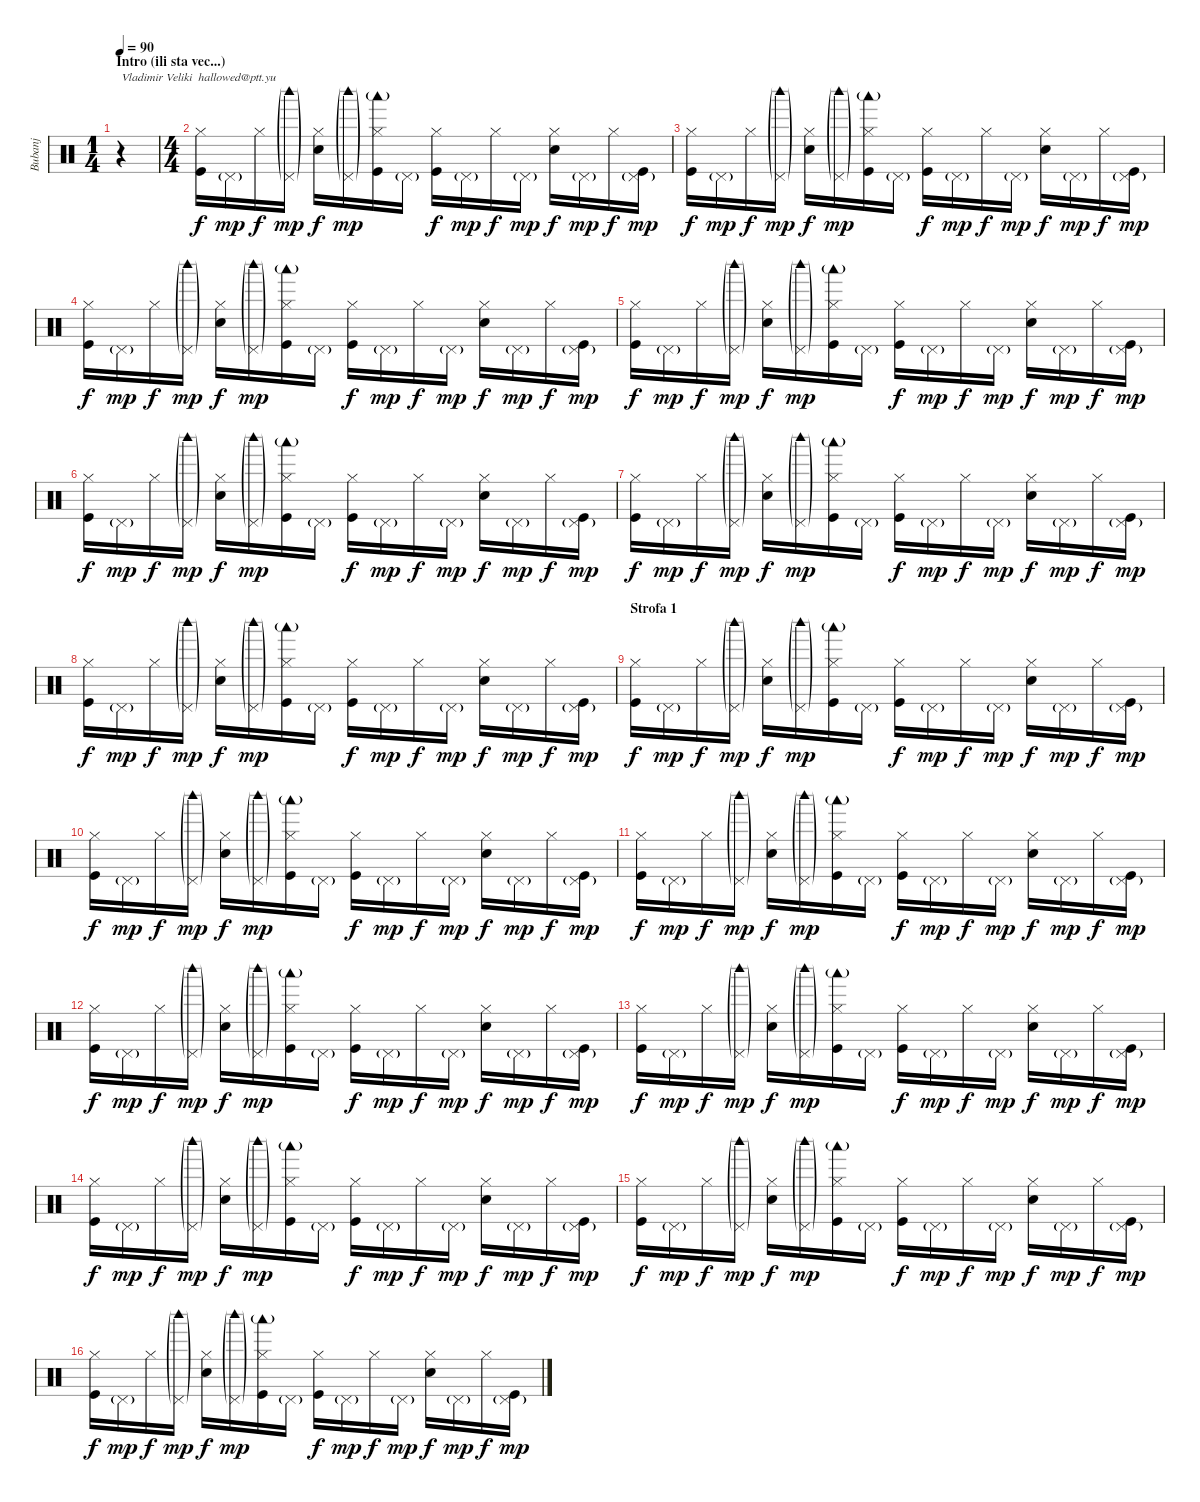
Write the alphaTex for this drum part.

\track ("Bubanj" "Bubanj") {instrument percussion}
\staff {score}
\articulation defaults
\ts (1 4)
\section ("" "Intro (ili sta vec...)")
\tempo 90
\clef neutral
\ks c
r.4{txt "Vladimir Veliki  hallowed@ptt.yu" dy f volume 4} |
\ts (4 4)
("Hi-Hat (closed)" "Kick (hit)").16{volume 11} "Pedal Hi-Hat (hit)"{g}.16{dy mp} "Hi-Hat (closed)".16{dy f} ("Pedal Hi-Hat (hit)"{g} "Woodblock high (hit)"{g}).16{dy mp} ("Hi-Hat (closed)" "Snare (hit) 2").16{dy f} ("Pedal Hi-Hat (hit)"{g} "Woodblock high (hit)"{g}).16{dy mp} ("Hi-Hat (closed)" "Woodblock low (hit)"{g} "Kick (hit)").16 "Pedal Hi-Hat (hit)"{g}.16 ("Hi-Hat (closed)" "Kick (hit)").16{dy f} "Pedal Hi-Hat (hit)"{g}.16{dy mp} "Hi-Hat (closed)".16{dy f} "Pedal Hi-Hat (hit)"{g}.16{dy mp} ("Hi-Hat (closed)" "Snare (hit) 2").16{dy f} "Pedal Hi-Hat (hit)"{g}.16{dy mp} "Hi-Hat (closed)".16{dy f} ("Pedal Hi-Hat (hit)"{g} "Kick (hit)").16{dy mp} |
("Hi-Hat (closed)" "Kick (hit)").16{dy f} "Pedal Hi-Hat (hit)"{g}.16{dy mp} "Hi-Hat (closed)".16{dy f} ("Pedal Hi-Hat (hit)"{g} "Woodblock high (hit)"{g}).16{dy mp} ("Hi-Hat (closed)" "Snare (hit) 2").16{dy f} ("Pedal Hi-Hat (hit)"{g} "Woodblock high (hit)"{g}).16{dy mp} ("Hi-Hat (closed)" "Woodblock low (hit)"{g} "Kick (hit)").16 "Pedal Hi-Hat (hit)"{g}.16 ("Hi-Hat (closed)" "Kick (hit)").16{dy f} "Pedal Hi-Hat (hit)"{g}.16{dy mp} "Hi-Hat (closed)".16{dy f} "Pedal Hi-Hat (hit)"{g}.16{dy mp} ("Hi-Hat (closed)" "Snare (hit) 2").16{dy f} "Pedal Hi-Hat (hit)"{g}.16{dy mp} "Hi-Hat (closed)".16{dy f} ("Pedal Hi-Hat (hit)"{g} "Kick (hit)").16{dy mp} |
("Hi-Hat (closed)" "Kick (hit)").16{dy f} "Pedal Hi-Hat (hit)"{g}.16{dy mp} "Hi-Hat (closed)".16{dy f} ("Pedal Hi-Hat (hit)"{g} "Woodblock high (hit)"{g}).16{dy mp} ("Hi-Hat (closed)" "Snare (hit) 2").16{dy f} ("Pedal Hi-Hat (hit)"{g} "Woodblock high (hit)"{g}).16{dy mp} ("Hi-Hat (closed)" "Woodblock low (hit)"{g} "Kick (hit)").16 "Pedal Hi-Hat (hit)"{g}.16 ("Hi-Hat (closed)" "Kick (hit)").16{dy f} "Pedal Hi-Hat (hit)"{g}.16{dy mp} "Hi-Hat (closed)".16{dy f} "Pedal Hi-Hat (hit)"{g}.16{dy mp} ("Hi-Hat (closed)" "Snare (hit) 2").16{dy f} "Pedal Hi-Hat (hit)"{g}.16{dy mp} "Hi-Hat (closed)".16{dy f} ("Pedal Hi-Hat (hit)"{g} "Kick (hit)").16{dy mp} |
("Hi-Hat (closed)" "Kick (hit)").16{dy f} "Pedal Hi-Hat (hit)"{g}.16{dy mp} "Hi-Hat (closed)".16{dy f} ("Pedal Hi-Hat (hit)"{g} "Woodblock high (hit)"{g}).16{dy mp} ("Hi-Hat (closed)" "Snare (hit) 2").16{dy f} ("Pedal Hi-Hat (hit)"{g} "Woodblock high (hit)"{g}).16{dy mp} ("Hi-Hat (closed)" "Woodblock low (hit)"{g} "Kick (hit)").16 "Pedal Hi-Hat (hit)"{g}.16 ("Hi-Hat (closed)" "Kick (hit)").16{dy f} "Pedal Hi-Hat (hit)"{g}.16{dy mp} "Hi-Hat (closed)".16{dy f} "Pedal Hi-Hat (hit)"{g}.16{dy mp} ("Hi-Hat (closed)" "Snare (hit) 2").16{dy f} "Pedal Hi-Hat (hit)"{g}.16{dy mp} "Hi-Hat (closed)".16{dy f} ("Pedal Hi-Hat (hit)"{g} "Kick (hit)").16{dy mp} |
("Hi-Hat (closed)" "Kick (hit)").16{dy f} "Pedal Hi-Hat (hit)"{g}.16{dy mp} "Hi-Hat (closed)".16{dy f} ("Pedal Hi-Hat (hit)"{g} "Woodblock high (hit)"{g}).16{dy mp} ("Hi-Hat (closed)" "Snare (hit) 2").16{dy f} ("Pedal Hi-Hat (hit)"{g} "Woodblock high (hit)"{g}).16{dy mp} ("Hi-Hat (closed)" "Woodblock low (hit)"{g} "Kick (hit)").16 "Pedal Hi-Hat (hit)"{g}.16 ("Hi-Hat (closed)" "Kick (hit)").16{dy f} "Pedal Hi-Hat (hit)"{g}.16{dy mp} "Hi-Hat (closed)".16{dy f} "Pedal Hi-Hat (hit)"{g}.16{dy mp} ("Hi-Hat (closed)" "Snare (hit) 2").16{dy f} "Pedal Hi-Hat (hit)"{g}.16{dy mp} "Hi-Hat (closed)".16{dy f} ("Pedal Hi-Hat (hit)"{g} "Kick (hit)").16{dy mp} |
("Hi-Hat (closed)" "Kick (hit)").16{dy f} "Pedal Hi-Hat (hit)"{g}.16{dy mp} "Hi-Hat (closed)".16{dy f} ("Pedal Hi-Hat (hit)"{g} "Woodblock high (hit)"{g}).16{dy mp} ("Hi-Hat (closed)" "Snare (hit) 2").16{dy f} ("Pedal Hi-Hat (hit)"{g} "Woodblock high (hit)"{g}).16{dy mp} ("Hi-Hat (closed)" "Woodblock low (hit)"{g} "Kick (hit)").16 "Pedal Hi-Hat (hit)"{g}.16 ("Hi-Hat (closed)" "Kick (hit)").16{dy f} "Pedal Hi-Hat (hit)"{g}.16{dy mp} "Hi-Hat (closed)".16{dy f} "Pedal Hi-Hat (hit)"{g}.16{dy mp} ("Hi-Hat (closed)" "Snare (hit) 2").16{dy f} "Pedal Hi-Hat (hit)"{g}.16{dy mp} "Hi-Hat (closed)".16{dy f} ("Pedal Hi-Hat (hit)"{g} "Kick (hit)").16{dy mp} |
("Hi-Hat (closed)" "Kick (hit)").16{dy f} "Pedal Hi-Hat (hit)"{g}.16{dy mp} "Hi-Hat (closed)".16{dy f} ("Pedal Hi-Hat (hit)"{g} "Woodblock high (hit)"{g}).16{dy mp} ("Hi-Hat (closed)" "Snare (hit) 2").16{dy f} ("Pedal Hi-Hat (hit)"{g} "Woodblock high (hit)"{g}).16{dy mp} ("Hi-Hat (closed)" "Woodblock low (hit)"{g} "Kick (hit)").16 "Pedal Hi-Hat (hit)"{g}.16 ("Hi-Hat (closed)" "Kick (hit)").16{dy f} "Pedal Hi-Hat (hit)"{g}.16{dy mp} "Hi-Hat (closed)".16{dy f} "Pedal Hi-Hat (hit)"{g}.16{dy mp} ("Hi-Hat (closed)" "Snare (hit) 2").16{dy f} "Pedal Hi-Hat (hit)"{g}.16{dy mp} "Hi-Hat (closed)".16{dy f} ("Pedal Hi-Hat (hit)"{g} "Kick (hit)").16{dy mp} |
\section ("" "Strofa 1")
("Hi-Hat (closed)" "Kick (hit)").16{dy f} "Pedal Hi-Hat (hit)"{g}.16{dy mp} "Hi-Hat (closed)".16{dy f} ("Pedal Hi-Hat (hit)"{g} "Woodblock high (hit)"{g}).16{dy mp} ("Hi-Hat (closed)" "Snare (hit) 2").16{dy f} ("Pedal Hi-Hat (hit)"{g} "Woodblock high (hit)"{g}).16{dy mp} ("Hi-Hat (closed)" "Woodblock low (hit)"{g} "Kick (hit)").16 "Pedal Hi-Hat (hit)"{g}.16 ("Hi-Hat (closed)" "Kick (hit)").16{dy f} "Pedal Hi-Hat (hit)"{g}.16{dy mp} "Hi-Hat (closed)".16{dy f} "Pedal Hi-Hat (hit)"{g}.16{dy mp} ("Hi-Hat (closed)" "Snare (hit) 2").16{dy f} "Pedal Hi-Hat (hit)"{g}.16{dy mp} "Hi-Hat (closed)".16{dy f} ("Pedal Hi-Hat (hit)"{g} "Kick (hit)").16{dy mp} |
("Hi-Hat (closed)" "Kick (hit)").16{dy f} "Pedal Hi-Hat (hit)"{g}.16{dy mp} "Hi-Hat (closed)".16{dy f} ("Pedal Hi-Hat (hit)"{g} "Woodblock high (hit)"{g}).16{dy mp} ("Hi-Hat (closed)" "Snare (hit) 2").16{dy f} ("Pedal Hi-Hat (hit)"{g} "Woodblock high (hit)"{g}).16{dy mp} ("Hi-Hat (closed)" "Woodblock low (hit)"{g} "Kick (hit)").16 "Pedal Hi-Hat (hit)"{g}.16 ("Hi-Hat (closed)" "Kick (hit)").16{dy f} "Pedal Hi-Hat (hit)"{g}.16{dy mp} "Hi-Hat (closed)".16{dy f} "Pedal Hi-Hat (hit)"{g}.16{dy mp} ("Hi-Hat (closed)" "Snare (hit) 2").16{dy f} "Pedal Hi-Hat (hit)"{g}.16{dy mp} "Hi-Hat (closed)".16{dy f} ("Pedal Hi-Hat (hit)"{g} "Kick (hit)").16{dy mp} |
("Hi-Hat (closed)" "Kick (hit)").16{dy f} "Pedal Hi-Hat (hit)"{g}.16{dy mp} "Hi-Hat (closed)".16{dy f} ("Pedal Hi-Hat (hit)"{g} "Woodblock high (hit)"{g}).16{dy mp} ("Hi-Hat (closed)" "Snare (hit) 2").16{dy f} ("Pedal Hi-Hat (hit)"{g} "Woodblock high (hit)"{g}).16{dy mp} ("Hi-Hat (closed)" "Woodblock low (hit)"{g} "Kick (hit)").16 "Pedal Hi-Hat (hit)"{g}.16 ("Hi-Hat (closed)" "Kick (hit)").16{dy f} "Pedal Hi-Hat (hit)"{g}.16{dy mp} "Hi-Hat (closed)".16{dy f} "Pedal Hi-Hat (hit)"{g}.16{dy mp} ("Hi-Hat (closed)" "Snare (hit) 2").16{dy f} "Pedal Hi-Hat (hit)"{g}.16{dy mp} "Hi-Hat (closed)".16{dy f} ("Pedal Hi-Hat (hit)"{g} "Kick (hit)").16{dy mp} |
("Hi-Hat (closed)" "Kick (hit)").16{dy f} "Pedal Hi-Hat (hit)"{g}.16{dy mp} "Hi-Hat (closed)".16{dy f} ("Pedal Hi-Hat (hit)"{g} "Woodblock high (hit)"{g}).16{dy mp} ("Hi-Hat (closed)" "Snare (hit) 2").16{dy f} ("Pedal Hi-Hat (hit)"{g} "Woodblock high (hit)"{g}).16{dy mp} ("Hi-Hat (closed)" "Woodblock low (hit)"{g} "Kick (hit)").16 "Pedal Hi-Hat (hit)"{g}.16 ("Hi-Hat (closed)" "Kick (hit)").16{dy f} "Pedal Hi-Hat (hit)"{g}.16{dy mp} "Hi-Hat (closed)".16{dy f} "Pedal Hi-Hat (hit)"{g}.16{dy mp} ("Hi-Hat (closed)" "Snare (hit) 2").16{dy f} "Pedal Hi-Hat (hit)"{g}.16{dy mp} "Hi-Hat (closed)".16{dy f} ("Pedal Hi-Hat (hit)"{g} "Kick (hit)").16{dy mp} |
("Hi-Hat (closed)" "Kick (hit)").16{dy f} "Pedal Hi-Hat (hit)"{g}.16{dy mp} "Hi-Hat (closed)".16{dy f} ("Pedal Hi-Hat (hit)"{g} "Woodblock high (hit)"{g}).16{dy mp} ("Hi-Hat (closed)" "Snare (hit) 2").16{dy f} ("Pedal Hi-Hat (hit)"{g} "Woodblock high (hit)"{g}).16{dy mp} ("Hi-Hat (closed)" "Woodblock low (hit)"{g} "Kick (hit)").16 "Pedal Hi-Hat (hit)"{g}.16 ("Hi-Hat (closed)" "Kick (hit)").16{dy f} "Pedal Hi-Hat (hit)"{g}.16{dy mp} "Hi-Hat (closed)".16{dy f} "Pedal Hi-Hat (hit)"{g}.16{dy mp} ("Hi-Hat (closed)" "Snare (hit) 2").16{dy f} "Pedal Hi-Hat (hit)"{g}.16{dy mp} "Hi-Hat (closed)".16{dy f} ("Pedal Hi-Hat (hit)"{g} "Kick (hit)").16{dy mp} |
("Hi-Hat (closed)" "Kick (hit)").16{dy f} "Pedal Hi-Hat (hit)"{g}.16{dy mp} "Hi-Hat (closed)".16{dy f} ("Pedal Hi-Hat (hit)"{g} "Woodblock high (hit)"{g}).16{dy mp} ("Hi-Hat (closed)" "Snare (hit) 2").16{dy f} ("Pedal Hi-Hat (hit)"{g} "Woodblock high (hit)"{g}).16{dy mp} ("Hi-Hat (closed)" "Woodblock low (hit)"{g} "Kick (hit)").16 "Pedal Hi-Hat (hit)"{g}.16 ("Hi-Hat (closed)" "Kick (hit)").16{dy f} "Pedal Hi-Hat (hit)"{g}.16{dy mp} "Hi-Hat (closed)".16{dy f} "Pedal Hi-Hat (hit)"{g}.16{dy mp} ("Hi-Hat (closed)" "Snare (hit) 2").16{dy f} "Pedal Hi-Hat (hit)"{g}.16{dy mp} "Hi-Hat (closed)".16{dy f} ("Pedal Hi-Hat (hit)"{g} "Kick (hit)").16{dy mp} |
("Hi-Hat (closed)" "Kick (hit)").16{dy f} "Pedal Hi-Hat (hit)"{g}.16{dy mp} "Hi-Hat (closed)".16{dy f} ("Pedal Hi-Hat (hit)"{g} "Woodblock high (hit)"{g}).16{dy mp} ("Hi-Hat (closed)" "Snare (hit) 2").16{dy f} ("Pedal Hi-Hat (hit)"{g} "Woodblock high (hit)"{g}).16{dy mp} ("Hi-Hat (closed)" "Woodblock low (hit)"{g} "Kick (hit)").16 "Pedal Hi-Hat (hit)"{g}.16 ("Hi-Hat (closed)" "Kick (hit)").16{dy f} "Pedal Hi-Hat (hit)"{g}.16{dy mp} "Hi-Hat (closed)".16{dy f} "Pedal Hi-Hat (hit)"{g}.16{dy mp} ("Hi-Hat (closed)" "Snare (hit) 2").16{dy f} "Pedal Hi-Hat (hit)"{g}.16{dy mp} "Hi-Hat (closed)".16{dy f} ("Pedal Hi-Hat (hit)"{g} "Kick (hit)").16{dy mp} |
("Hi-Hat (closed)" "Kick (hit)").16{dy f} "Pedal Hi-Hat (hit)"{g}.16{dy mp} "Hi-Hat (closed)".16{dy f} ("Pedal Hi-Hat (hit)"{g} "Woodblock high (hit)"{g}).16{dy mp} ("Hi-Hat (closed)" "Snare (hit) 2").16{dy f} ("Pedal Hi-Hat (hit)"{g} "Woodblock high (hit)"{g}).16{dy mp} ("Hi-Hat (closed)" "Woodblock low (hit)"{g} "Kick (hit)").16 "Pedal Hi-Hat (hit)"{g}.16 ("Hi-Hat (closed)" "Kick (hit)").16{dy f} "Pedal Hi-Hat (hit)"{g}.16{dy mp} "Hi-Hat (closed)".16{dy f} "Pedal Hi-Hat (hit)"{g}.16{dy mp} ("Hi-Hat (closed)" "Snare (hit) 2").16{dy f} "Pedal Hi-Hat (hit)"{g}.16{dy mp} "Hi-Hat (closed)".16{dy f} ("Pedal Hi-Hat (hit)"{g} "Kick (hit)").16{dy mp}
